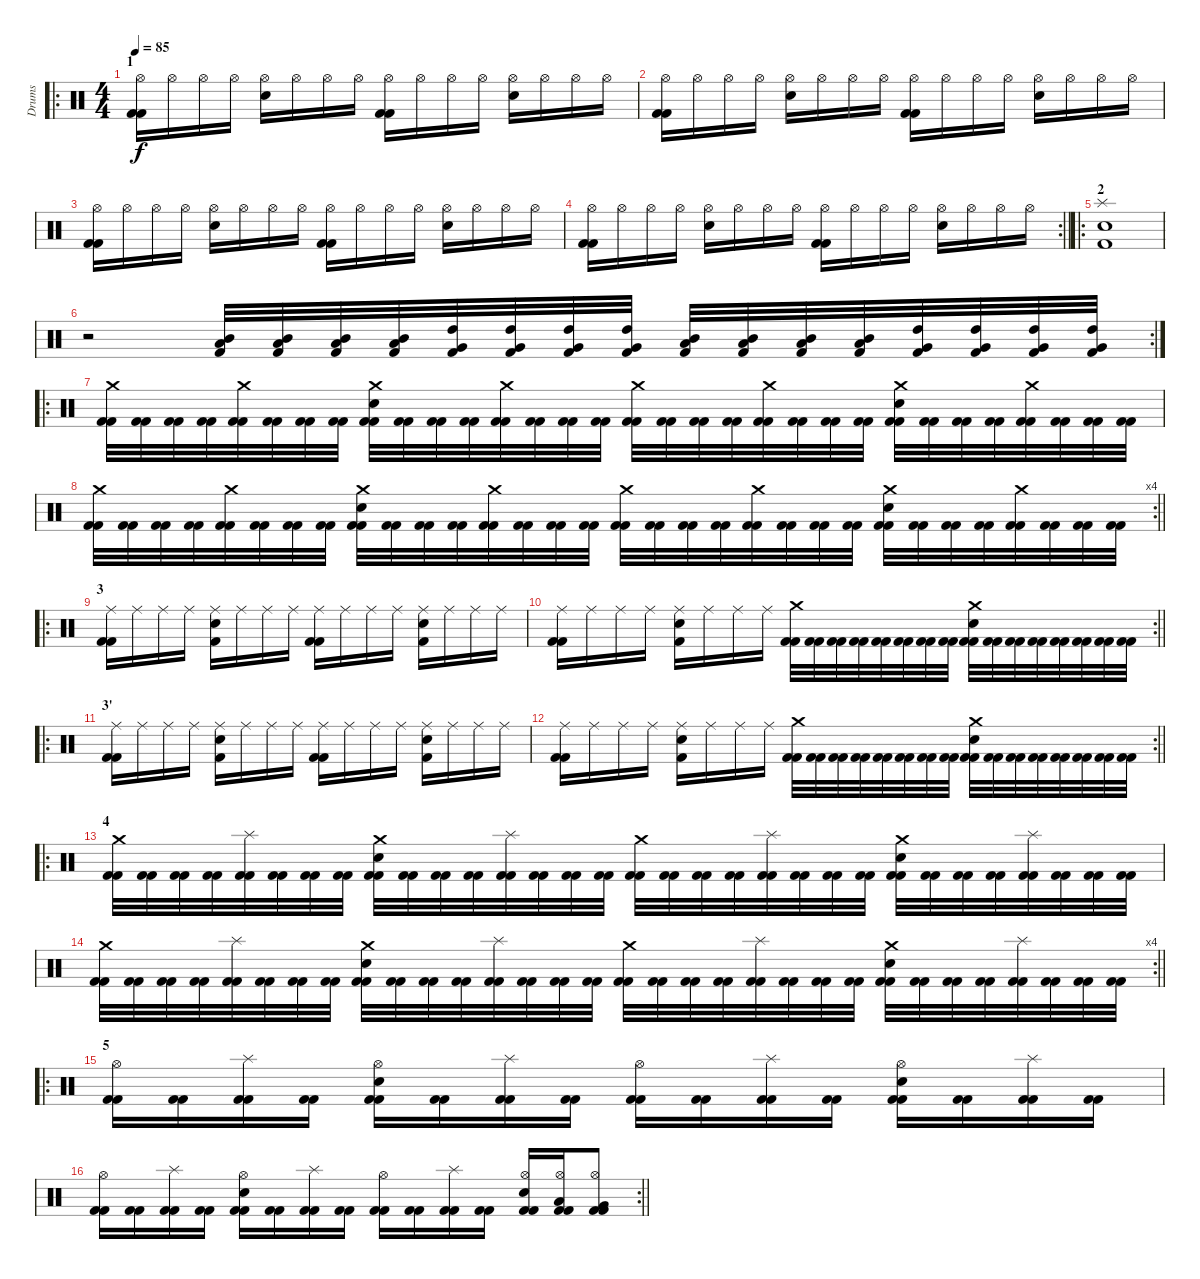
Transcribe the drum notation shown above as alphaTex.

\track ("Drums" "Drums") {instrument percussion}
\staff {score}
\articulation defaults
\ro
\ts (4 4)
\section ("" "1")
\tempo 85
\clef neutral
\ks c
("Kick (hit) 2" "Kick (hit) 2" "Hi-Hat (open)").16{dy f} "Hi-Hat (open)".16 "Hi-Hat (open)".16 "Hi-Hat (open)".16 ("Snare (hit) 2" "Hi-Hat (open)").16 "Hi-Hat (open)".16 "Hi-Hat (open)".16 "Hi-Hat (open)".16 ("Kick (hit) 2" "Kick (hit) 2" "Hi-Hat (open)").16 "Hi-Hat (open)".16 "Hi-Hat (open)".16 "Hi-Hat (open)".16 ("Snare (hit) 2" "Hi-Hat (open)").16 "Hi-Hat (open)".16 "Hi-Hat (open)".16 "Hi-Hat (open)".16 |
("Kick (hit) 2" "Kick (hit) 2" "Hi-Hat (open)").16 "Hi-Hat (open)".16 "Hi-Hat (open)".16 "Hi-Hat (open)".16 ("Snare (hit) 2" "Hi-Hat (open)").16 "Hi-Hat (open)".16 "Hi-Hat (open)".16 "Hi-Hat (open)".16 ("Kick (hit) 2" "Kick (hit) 2" "Hi-Hat (open)").16 "Hi-Hat (open)".16 "Hi-Hat (open)".16 "Hi-Hat (open)".16 ("Snare (hit) 2" "Hi-Hat (open)").16 "Hi-Hat (open)".16 "Hi-Hat (open)".16 "Hi-Hat (open)".16 |
("Kick (hit) 2" "Kick (hit) 2" "Hi-Hat (open)").16 "Hi-Hat (open)".16 "Hi-Hat (open)".16 "Hi-Hat (open)".16 ("Snare (hit) 2" "Hi-Hat (open)").16 "Hi-Hat (open)".16 "Hi-Hat (open)".16 "Hi-Hat (open)".16 ("Kick (hit) 2" "Kick (hit) 2" "Hi-Hat (open)").16 "Hi-Hat (open)".16 "Hi-Hat (open)".16 "Hi-Hat (open)".16 ("Snare (hit) 2" "Hi-Hat (open)").16 "Hi-Hat (open)".16 "Hi-Hat (open)".16 "Hi-Hat (open)".16 |
\rc 2
\barLineRight lightlight
("Kick (hit) 2" "Kick (hit) 2" "Hi-Hat (open)").16 "Hi-Hat (open)".16 "Hi-Hat (open)".16 "Hi-Hat (open)".16 ("Snare (hit) 2" "Hi-Hat (open)").16 "Hi-Hat (open)".16 "Hi-Hat (open)".16 "Hi-Hat (open)".16 ("Kick (hit) 2" "Kick (hit) 2" "Hi-Hat (open)").16 "Hi-Hat (open)".16 "Hi-Hat (open)".16 "Hi-Hat (open)".16 ("Snare (hit) 2" "Hi-Hat (open)").16 "Hi-Hat (open)".16 "Hi-Hat (open)".16 "Hi-Hat (open)".16 |
\ro
\section ("" "2")
("Kick (hit) 2" "Splash (hit)" "Snare (hit) 2").1 |
\rc 2
r.2 ("Kick (hit) 2" "Mid Tom (hit)" "Low Tom (hit)").32 ("Kick (hit) 2" "Mid Tom (hit)" "Low Tom (hit)").32 ("Kick (hit) 2" "Mid Tom (hit)" "Low Tom (hit)").32 ("Kick (hit) 2" "Mid Tom (hit)" "Low Tom (hit)").32 ("Kick (hit) 2" "High Tom (hit)" "Very Low Tom (hit)").32 ("Kick (hit) 2" "High Tom (hit)" "Very Low Tom (hit)").32 ("Kick (hit) 2" "High Tom (hit)" "Very Low Tom (hit)").32 ("Kick (hit) 2" "High Tom (hit)" "Very Low Tom (hit)").32 ("Kick (hit) 2" "Low Tom (hit)" "Mid Tom (hit)").32 ("Kick (hit) 2" "Low Tom (hit)" "Mid Tom (hit)").32 ("Kick (hit) 2" "Low Tom (hit)" "Mid Tom (hit)").32 ("Kick (hit) 2" "Low Tom (hit)" "Mid Tom (hit)").32 ("Kick (hit) 2" "Very Low Tom (hit)" "High Tom (hit)").32 ("Kick (hit) 2" "Very Low Tom (hit)" "High Tom (hit)").32 ("Kick (hit) 2" "Very Low Tom (hit)" "High Tom (hit)").32 ("Kick (hit) 2" "Very Low Tom (hit)" "High Tom (hit)").32 |
\ro
("Crash medium (hit)" "Kick (hit) 2" "Kick (hit) 2").32 ("Kick (hit) 2" "Kick (hit) 2").32 ("Kick (hit) 2" "Kick (hit) 2").32 ("Kick (hit) 2" "Kick (hit) 2").32 ("Crash medium (hit)" "Kick (hit) 2" "Kick (hit) 2").32 ("Kick (hit) 2" "Kick (hit) 2").32 ("Kick (hit) 2" "Kick (hit) 2").32 ("Kick (hit) 2" "Kick (hit) 2").32 ("Snare (hit) 2" "Crash medium (hit)" "Kick (hit) 2" "Kick (hit) 2").32 ("Kick (hit) 2" "Kick (hit) 2").32 ("Kick (hit) 2" "Kick (hit) 2").32 ("Kick (hit) 2" "Kick (hit) 2").32 ("Crash medium (hit)" "Kick (hit) 2" "Kick (hit) 2").32 ("Kick (hit) 2" "Kick (hit) 2").32 ("Kick (hit) 2" "Kick (hit) 2").32 ("Kick (hit) 2" "Kick (hit) 2").32 ("Crash medium (hit)" "Kick (hit) 2" "Kick (hit) 2").32 ("Kick (hit) 2" "Kick (hit) 2").32 ("Kick (hit) 2" "Kick (hit) 2").32 ("Kick (hit) 2" "Kick (hit) 2").32 ("Crash medium (hit)" "Kick (hit) 2" "Kick (hit) 2").32 ("Kick (hit) 2" "Kick (hit) 2").32 ("Kick (hit) 2" "Kick (hit) 2").32 ("Kick (hit) 2" "Kick (hit) 2").32 ("Snare (hit) 2" "Crash medium (hit)" "Kick (hit) 2" "Kick (hit) 2").32 ("Kick (hit) 2" "Kick (hit) 2").32 ("Kick (hit) 2" "Kick (hit) 2").32 ("Kick (hit) 2" "Kick (hit) 2").32 ("Crash medium (hit)" "Kick (hit) 2" "Kick (hit) 2").32 ("Kick (hit) 2" "Kick (hit) 2").32 ("Kick (hit) 2" "Kick (hit) 2").32 ("Kick (hit) 2" "Kick (hit) 2").32 |
\rc 4
\barLineRight lightlight
("Crash medium (hit)" "Kick (hit) 2" "Kick (hit) 2").32 ("Kick (hit) 2" "Kick (hit) 2").32 ("Kick (hit) 2" "Kick (hit) 2").32 ("Kick (hit) 2" "Kick (hit) 2").32 ("Crash medium (hit)" "Kick (hit) 2" "Kick (hit) 2").32 ("Kick (hit) 2" "Kick (hit) 2").32 ("Kick (hit) 2" "Kick (hit) 2").32 ("Kick (hit) 2" "Kick (hit) 2").32 ("Snare (hit) 2" "Crash medium (hit)" "Kick (hit) 2" "Kick (hit) 2").32 ("Kick (hit) 2" "Kick (hit) 2").32 ("Kick (hit) 2" "Kick (hit) 2").32 ("Kick (hit) 2" "Kick (hit) 2").32 ("Crash medium (hit)" "Kick (hit) 2" "Kick (hit) 2").32 ("Kick (hit) 2" "Kick (hit) 2").32 ("Kick (hit) 2" "Kick (hit) 2").32 ("Kick (hit) 2" "Kick (hit) 2").32 ("Crash medium (hit)" "Kick (hit) 2" "Kick (hit) 2").32 ("Kick (hit) 2" "Kick (hit) 2").32 ("Kick (hit) 2" "Kick (hit) 2").32 ("Kick (hit) 2" "Kick (hit) 2").32 ("Crash medium (hit)" "Kick (hit) 2" "Kick (hit) 2").32 ("Kick (hit) 2" "Kick (hit) 2").32 ("Kick (hit) 2" "Kick (hit) 2").32 ("Kick (hit) 2" "Kick (hit) 2").32 ("Snare (hit) 2" "Crash medium (hit)" "Kick (hit) 2" "Kick (hit) 2").32 ("Kick (hit) 2" "Kick (hit) 2").32 ("Kick (hit) 2" "Kick (hit) 2").32 ("Kick (hit) 2" "Kick (hit) 2").32 ("Crash medium (hit)" "Kick (hit) 2" "Kick (hit) 2").32 ("Kick (hit) 2" "Kick (hit) 2").32 ("Kick (hit) 2" "Kick (hit) 2").32 ("Kick (hit) 2" "Kick (hit) 2").32 |
\ro
\section ("" "3")
("Kick (hit) 2" "Kick (hit) 2" "Ride (middle)").16 "Ride (middle)".16 "Ride (middle)".16 "Ride (middle)".16 ("Snare (hit) 2" "Kick (hit) 2" "Ride (middle)").16 "Ride (middle)".16 "Ride (middle)".16 "Ride (middle)".16 ("Kick (hit) 2" "Kick (hit) 2" "Ride (middle)").16 "Ride (middle)".16 "Ride (middle)".16 "Ride (middle)".16 ("Snare (hit) 2" "Kick (hit) 2" "Ride (middle)").16 "Ride (middle)".16 "Ride (middle)".16 "Ride (middle)".16 |
\rc 2
\barLineRight lightlight
("Kick (hit) 2" "Kick (hit) 2" "Ride (middle)").16 "Ride (middle)".16 "Ride (middle)".16 "Ride (middle)".16 ("Snare (hit) 2" "Kick (hit) 2" "Ride (middle)").16 "Ride (middle)".16 "Ride (middle)".16 "Ride (middle)".16 ("Crash medium (hit)" "Kick (hit) 2" "Kick (hit) 2").32 ("Kick (hit) 2" "Kick (hit) 2").32 ("Kick (hit) 2" "Kick (hit) 2").32 ("Kick (hit) 2" "Kick (hit) 2").32 ("Kick (hit) 2" "Kick (hit) 2").32 ("Kick (hit) 2" "Kick (hit) 2").32 ("Kick (hit) 2" "Kick (hit) 2").32 ("Kick (hit) 2" "Kick (hit) 2").32 ("Crash medium (hit)" "Snare (hit) 2" "Kick (hit) 2" "Kick (hit) 2").32 ("Kick (hit) 2" "Kick (hit) 2").32 ("Kick (hit) 2" "Kick (hit) 2").32 ("Kick (hit) 2" "Kick (hit) 2").32 ("Kick (hit) 2" "Kick (hit) 2").32 ("Kick (hit) 2" "Kick (hit) 2").32 ("Kick (hit) 2" "Kick (hit) 2").32 ("Kick (hit) 2" "Kick (hit) 2").32 |
\ro
\section ("" "3'")
("Kick (hit) 2" "Kick (hit) 2" "Ride (middle)").16 "Ride (middle)".16 "Ride (middle)".16 "Ride (middle)".16 ("Snare (hit) 2" "Kick (hit) 2" "Ride (middle)").16 "Ride (middle)".16 "Ride (middle)".16 "Ride (middle)".16 ("Kick (hit) 2" "Kick (hit) 2" "Ride (middle)").16 "Ride (middle)".16 "Ride (middle)".16 "Ride (middle)".16 ("Snare (hit) 2" "Kick (hit) 2" "Ride (middle)").16 "Ride (middle)".16 "Ride (middle)".16 "Ride (middle)".16 |
\rc 2
\barLineRight lightlight
("Kick (hit) 2" "Kick (hit) 2" "Ride (middle)").16 "Ride (middle)".16 "Ride (middle)".16 "Ride (middle)".16 ("Snare (hit) 2" "Kick (hit) 2" "Ride (middle)").16 "Ride (middle)".16 "Ride (middle)".16 "Ride (middle)".16 ("Crash medium (hit)" "Kick (hit) 2" "Kick (hit) 2").32 ("Kick (hit) 2" "Kick (hit) 2").32 ("Kick (hit) 2" "Kick (hit) 2").32 ("Kick (hit) 2" "Kick (hit) 2").32 ("Kick (hit) 2" "Kick (hit) 2").32 ("Kick (hit) 2" "Kick (hit) 2").32 ("Kick (hit) 2" "Kick (hit) 2").32 ("Kick (hit) 2" "Kick (hit) 2").32 ("Crash medium (hit)" "Snare (hit) 2" "Kick (hit) 2" "Kick (hit) 2").32 ("Kick (hit) 2" "Kick (hit) 2").32 ("Kick (hit) 2" "Kick (hit) 2").32 ("Kick (hit) 2" "Kick (hit) 2").32 ("Kick (hit) 2" "Kick (hit) 2").32 ("Kick (hit) 2" "Kick (hit) 2").32 ("Kick (hit) 2" "Kick (hit) 2").32 ("Kick (hit) 2" "Kick (hit) 2").32 |
\ro
\section ("" "4")
("Crash medium (hit)" "Kick (hit) 2" "Kick (hit) 2").32 ("Kick (hit) 2" "Kick (hit) 2").32 ("Kick (hit) 2" "Kick (hit) 2").32 ("Kick (hit) 2" "Kick (hit) 2").32 ("Splash (hit)" "Kick (hit) 2" "Kick (hit) 2").32 ("Kick (hit) 2" "Kick (hit) 2").32 ("Kick (hit) 2" "Kick (hit) 2").32 ("Kick (hit) 2" "Kick (hit) 2").32 ("Crash medium (hit)" "Snare (hit) 2" "Kick (hit) 2" "Kick (hit) 2").32 ("Kick (hit) 2" "Kick (hit) 2").32 ("Kick (hit) 2" "Kick (hit) 2").32 ("Kick (hit) 2" "Kick (hit) 2").32 ("Splash (hit)" "Kick (hit) 2" "Kick (hit) 2").32 ("Kick (hit) 2" "Kick (hit) 2").32 ("Kick (hit) 2" "Kick (hit) 2").32 ("Kick (hit) 2" "Kick (hit) 2").32 ("Crash medium (hit)" "Kick (hit) 2" "Kick (hit) 2").32 ("Kick (hit) 2" "Kick (hit) 2").32 ("Kick (hit) 2" "Kick (hit) 2").32 ("Kick (hit) 2" "Kick (hit) 2").32 ("Splash (hit)" "Kick (hit) 2" "Kick (hit) 2").32 ("Kick (hit) 2" "Kick (hit) 2").32 ("Kick (hit) 2" "Kick (hit) 2").32 ("Kick (hit) 2" "Kick (hit) 2").32 ("Crash medium (hit)" "Snare (hit) 2" "Kick (hit) 2" "Kick (hit) 2").32 ("Kick (hit) 2" "Kick (hit) 2").32 ("Kick (hit) 2" "Kick (hit) 2").32 ("Kick (hit) 2" "Kick (hit) 2").32 ("Splash (hit)" "Kick (hit) 2" "Kick (hit) 2").32 ("Kick (hit) 2" "Kick (hit) 2").32 ("Kick (hit) 2" "Kick (hit) 2").32 ("Kick (hit) 2" "Kick (hit) 2").32 |
\rc 4
\barLineRight lightlight
("Crash medium (hit)" "Kick (hit) 2" "Kick (hit) 2").32 ("Kick (hit) 2" "Kick (hit) 2").32 ("Kick (hit) 2" "Kick (hit) 2").32 ("Kick (hit) 2" "Kick (hit) 2").32 ("Splash (hit)" "Kick (hit) 2" "Kick (hit) 2").32 ("Kick (hit) 2" "Kick (hit) 2").32 ("Kick (hit) 2" "Kick (hit) 2").32 ("Kick (hit) 2" "Kick (hit) 2").32 ("Crash medium (hit)" "Snare (hit) 2" "Kick (hit) 2" "Kick (hit) 2").32 ("Kick (hit) 2" "Kick (hit) 2").32 ("Kick (hit) 2" "Kick (hit) 2").32 ("Kick (hit) 2" "Kick (hit) 2").32 ("Splash (hit)" "Kick (hit) 2" "Kick (hit) 2").32 ("Kick (hit) 2" "Kick (hit) 2").32 ("Kick (hit) 2" "Kick (hit) 2").32 ("Kick (hit) 2" "Kick (hit) 2").32 ("Crash medium (hit)" "Kick (hit) 2" "Kick (hit) 2").32 ("Kick (hit) 2" "Kick (hit) 2").32 ("Kick (hit) 2" "Kick (hit) 2").32 ("Kick (hit) 2" "Kick (hit) 2").32 ("Splash (hit)" "Kick (hit) 2" "Kick (hit) 2").32 ("Kick (hit) 2" "Kick (hit) 2").32 ("Kick (hit) 2" "Kick (hit) 2").32 ("Kick (hit) 2" "Kick (hit) 2").32 ("Crash medium (hit)" "Snare (hit) 2" "Kick (hit) 2" "Kick (hit) 2").32 ("Kick (hit) 2" "Kick (hit) 2").32 ("Kick (hit) 2" "Kick (hit) 2").32 ("Kick (hit) 2" "Kick (hit) 2").32 ("Splash (hit)" "Kick (hit) 2" "Kick (hit) 2").32 ("Kick (hit) 2" "Kick (hit) 2").32 ("Kick (hit) 2" "Kick (hit) 2").32 ("Kick (hit) 2" "Kick (hit) 2").32 |
\ro
\section ("" "5")
("Hi-Hat (open)" "Kick (hit) 2" "Kick (hit) 2").16 ("Kick (hit) 2" "Kick (hit) 2").16 ("Splash (hit)" "Kick (hit) 2" "Kick (hit) 2").16 ("Kick (hit) 2" "Kick (hit) 2").16 ("Hi-Hat (open)" "Snare (hit) 2" "Kick (hit) 2" "Kick (hit) 2").16 ("Kick (hit) 2" "Kick (hit) 2").16 ("Splash (hit)" "Kick (hit) 2" "Kick (hit) 2").16 ("Kick (hit) 2" "Kick (hit) 2").16 ("Hi-Hat (open)" "Kick (hit) 2" "Kick (hit) 2").16 ("Kick (hit) 2" "Kick (hit) 2").16 ("Splash (hit)" "Kick (hit) 2" "Kick (hit) 2").16 ("Kick (hit) 2" "Kick (hit) 2").16 ("Hi-Hat (open)" "Snare (hit) 2" "Kick (hit) 2" "Kick (hit) 2").16 ("Kick (hit) 2" "Kick (hit) 2").16 ("Splash (hit)" "Kick (hit) 2" "Kick (hit) 2").16 ("Kick (hit) 2" "Kick (hit) 2").16 |
\rc 2
\barLineRight lightlight
("Hi-Hat (open)" "Kick (hit) 2" "Kick (hit) 2").16 ("Kick (hit) 2" "Kick (hit) 2").16 ("Splash (hit)" "Kick (hit) 2" "Kick (hit) 2").16 ("Kick (hit) 2" "Kick (hit) 2").16 ("Hi-Hat (open)" "Snare (hit) 2" "Kick (hit) 2" "Kick (hit) 2").16 ("Kick (hit) 2" "Kick (hit) 2").16 ("Splash (hit)" "Kick (hit) 2" "Kick (hit) 2").16 ("Kick (hit) 2" "Kick (hit) 2").16 ("Hi-Hat (open)" "Kick (hit) 2" "Kick (hit) 2").16 ("Kick (hit) 2" "Kick (hit) 2").16 ("Splash (hit)" "Kick (hit) 2" "Kick (hit) 2").16 ("Kick (hit) 2" "Kick (hit) 2").16 ("Hi-Hat (open)" "Snare (hit) 2" "Kick (hit) 2" "Kick (hit) 2").16 ("Hi-Hat (open)" "Low Tom (hit)" "Kick (hit) 2" "Kick (hit) 2").16 ("Hi-Hat (open)" "Very Low Tom (hit)" "Kick (hit) 2" "Kick (hit) 2").8
